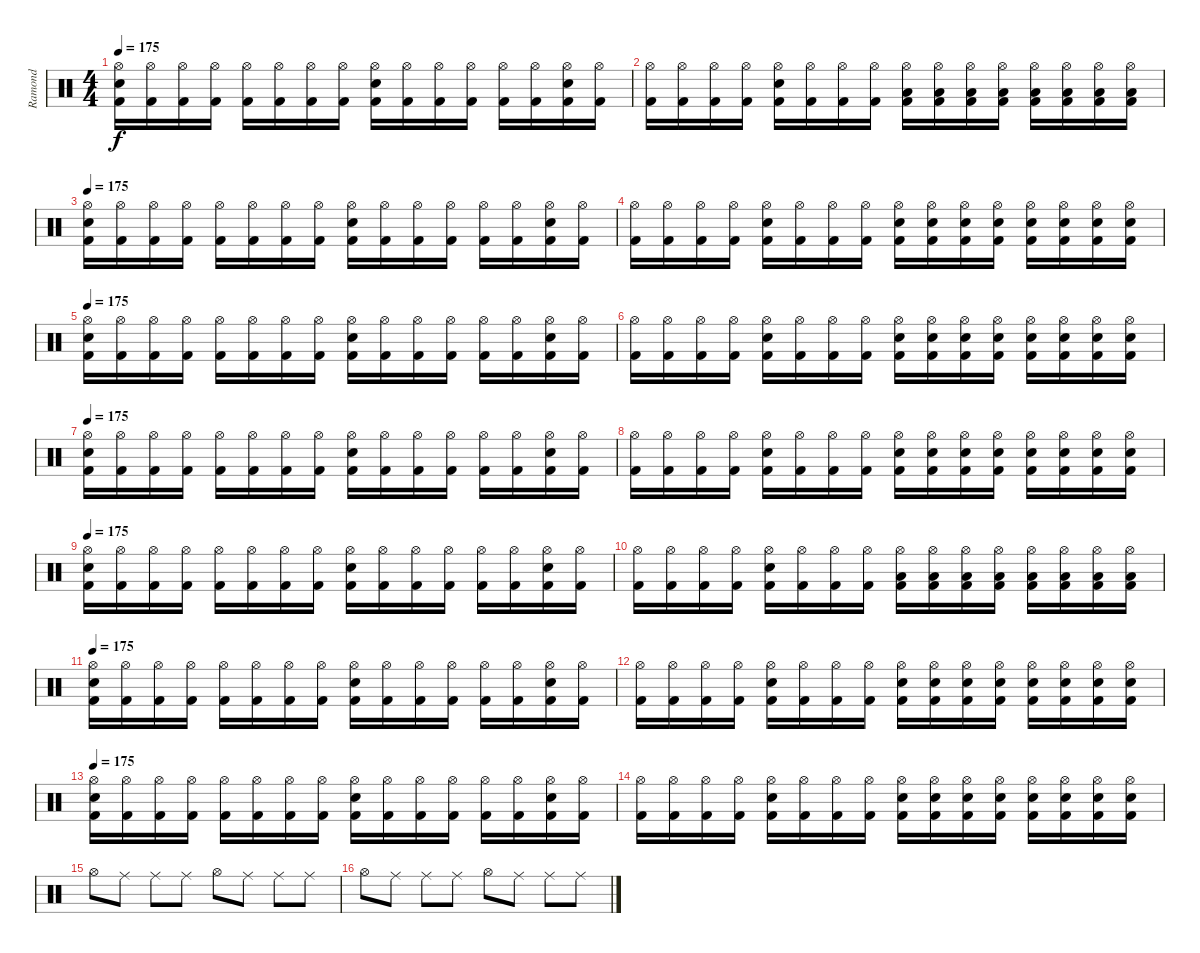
\track ("Ramond" "Ramond") {instrument percussion}
\staff {score}
\articulation defaults
\ts (4 4)
\tempo 175
\clef neutral
\ks c
("Hi-Hat (open)" "Electric Snare (hit)" "Kick (hit) 2").16{dy f} ("Hi-Hat (open)" "Kick (hit) 2").16 ("Hi-Hat (open)" "Kick (hit) 2").16 ("Hi-Hat (open)" "Kick (hit) 2").16 ("Hi-Hat (open)" "Kick (hit) 2").16 ("Hi-Hat (open)" "Kick (hit) 2").16 ("Hi-Hat (open)" "Kick (hit) 2").16 ("Hi-Hat (open)" "Kick (hit) 2").16 ("Hi-Hat (open)" "Electric Snare (hit)" "Kick (hit) 2").16 ("Hi-Hat (open)" "Kick (hit) 2").16 ("Hi-Hat (open)" "Kick (hit) 2").16 ("Hi-Hat (open)" "Kick (hit) 2").16 ("Hi-Hat (open)" "Kick (hit) 2").16 ("Hi-Hat (open)" "Kick (hit) 2").16 ("Hi-Hat (open)" "Electric Snare (hit)" "Kick (hit) 2").16 ("Hi-Hat (open)" "Kick (hit) 2").16 |
("Hi-Hat (open)" "Kick (hit) 2").16 ("Hi-Hat (open)" "Kick (hit) 2").16 ("Hi-Hat (open)" "Kick (hit) 2").16 ("Hi-Hat (open)" "Kick (hit) 2").16 ("Hi-Hat (open)" "Electric Snare (hit)" "Kick (hit) 2").16 ("Hi-Hat (open)" "Kick (hit) 2").16 ("Hi-Hat (open)" "Kick (hit) 2").16 ("Hi-Hat (open)" "Kick (hit) 2").16 ("Hi-Hat (open)" "Low Floor Tom (hit)" "Kick (hit) 2").16 ("Hi-Hat (open)" "Low Floor Tom (hit)" "Kick (hit) 2").16 ("Hi-Hat (open)" "Low Floor Tom (hit)" "Kick (hit) 2").16 ("Hi-Hat (open)" "Low Floor Tom (hit)" "Kick (hit) 2").16 ("Hi-Hat (open)" "Low Floor Tom (hit)" "Kick (hit) 2").16 ("Hi-Hat (open)" "Low Floor Tom (hit)" "Kick (hit) 2").16 ("Hi-Hat (open)" "Low Floor Tom (hit)" "Kick (hit) 2").16 ("Hi-Hat (open)" "Low Floor Tom (hit)" "Kick (hit) 2").16 |
\tempo 175
("Hi-Hat (open)" "Electric Snare (hit)" "Kick (hit) 2").16 ("Hi-Hat (open)" "Kick (hit) 2").16 ("Hi-Hat (open)" "Kick (hit) 2").16 ("Hi-Hat (open)" "Kick (hit) 2").16 ("Hi-Hat (open)" "Kick (hit) 2").16 ("Hi-Hat (open)" "Kick (hit) 2").16 ("Hi-Hat (open)" "Kick (hit) 2").16 ("Hi-Hat (open)" "Kick (hit) 2").16 ("Hi-Hat (open)" "Electric Snare (hit)" "Kick (hit) 2").16 ("Hi-Hat (open)" "Kick (hit) 2").16 ("Hi-Hat (open)" "Kick (hit) 2").16 ("Hi-Hat (open)" "Kick (hit) 2").16 ("Hi-Hat (open)" "Kick (hit) 2").16 ("Hi-Hat (open)" "Kick (hit) 2").16 ("Hi-Hat (open)" "Electric Snare (hit)" "Kick (hit) 2").16 ("Hi-Hat (open)" "Kick (hit) 2").16 |
("Hi-Hat (open)" "Kick (hit) 2").16 ("Hi-Hat (open)" "Kick (hit) 2").16 ("Hi-Hat (open)" "Kick (hit) 2").16 ("Hi-Hat (open)" "Kick (hit) 2").16 ("Hi-Hat (open)" "Electric Snare (hit)" "Kick (hit) 2").16 ("Hi-Hat (open)" "Kick (hit) 2").16 ("Hi-Hat (open)" "Kick (hit) 2").16 ("Hi-Hat (open)" "Kick (hit) 2").16 ("Hi-Hat (open)" "Electric Snare (hit)" "Kick (hit) 2").16 ("Hi-Hat (open)" "Electric Snare (hit)" "Kick (hit) 2").16 ("Hi-Hat (open)" "Electric Snare (hit)" "Kick (hit) 2").16 ("Hi-Hat (open)" "Electric Snare (hit)" "Kick (hit) 2").16 ("Hi-Hat (open)" "Electric Snare (hit)" "Kick (hit) 2").16 ("Hi-Hat (open)" "Electric Snare (hit)" "Kick (hit) 2").16 ("Hi-Hat (open)" "Electric Snare (hit)" "Kick (hit) 2").16 ("Hi-Hat (open)" "Electric Snare (hit)" "Kick (hit) 2").16 |
\tempo 175
("Hi-Hat (open)" "Electric Snare (hit)" "Kick (hit) 2").16 ("Hi-Hat (open)" "Kick (hit) 2").16 ("Hi-Hat (open)" "Kick (hit) 2").16 ("Hi-Hat (open)" "Kick (hit) 2").16 ("Hi-Hat (open)" "Kick (hit) 2").16 ("Hi-Hat (open)" "Kick (hit) 2").16 ("Hi-Hat (open)" "Kick (hit) 2").16 ("Hi-Hat (open)" "Kick (hit) 2").16 ("Hi-Hat (open)" "Electric Snare (hit)" "Kick (hit) 2").16 ("Hi-Hat (open)" "Kick (hit) 2").16 ("Hi-Hat (open)" "Kick (hit) 2").16 ("Hi-Hat (open)" "Kick (hit) 2").16 ("Hi-Hat (open)" "Kick (hit) 2").16 ("Hi-Hat (open)" "Kick (hit) 2").16 ("Hi-Hat (open)" "Electric Snare (hit)" "Kick (hit) 2").16 ("Hi-Hat (open)" "Kick (hit) 2").16 |
("Hi-Hat (open)" "Kick (hit) 2").16 ("Hi-Hat (open)" "Kick (hit) 2").16 ("Hi-Hat (open)" "Kick (hit) 2").16 ("Hi-Hat (open)" "Kick (hit) 2").16 ("Hi-Hat (open)" "Electric Snare (hit)" "Kick (hit) 2").16 ("Hi-Hat (open)" "Kick (hit) 2").16 ("Hi-Hat (open)" "Kick (hit) 2").16 ("Hi-Hat (open)" "Kick (hit) 2").16 ("Hi-Hat (open)" "Electric Snare (hit)" "Kick (hit) 2").16 ("Hi-Hat (open)" "Electric Snare (hit)" "Kick (hit) 2").16 ("Hi-Hat (open)" "Electric Snare (hit)" "Kick (hit) 2").16 ("Hi-Hat (open)" "Electric Snare (hit)" "Kick (hit) 2").16 ("Hi-Hat (open)" "Electric Snare (hit)" "Kick (hit) 2").16 ("Hi-Hat (open)" "Electric Snare (hit)" "Kick (hit) 2").16 ("Hi-Hat (open)" "Electric Snare (hit)" "Kick (hit) 2").16 ("Hi-Hat (open)" "Electric Snare (hit)" "Kick (hit) 2").16 |
\tempo 175
("Hi-Hat (open)" "Electric Snare (hit)" "Kick (hit) 2").16 ("Hi-Hat (open)" "Kick (hit) 2").16 ("Hi-Hat (open)" "Kick (hit) 2").16 ("Hi-Hat (open)" "Kick (hit) 2").16 ("Hi-Hat (open)" "Kick (hit) 2").16 ("Hi-Hat (open)" "Kick (hit) 2").16 ("Hi-Hat (open)" "Kick (hit) 2").16 ("Hi-Hat (open)" "Kick (hit) 2").16 ("Hi-Hat (open)" "Electric Snare (hit)" "Kick (hit) 2").16 ("Hi-Hat (open)" "Kick (hit) 2").16 ("Hi-Hat (open)" "Kick (hit) 2").16 ("Hi-Hat (open)" "Kick (hit) 2").16 ("Hi-Hat (open)" "Kick (hit) 2").16 ("Hi-Hat (open)" "Kick (hit) 2").16 ("Hi-Hat (open)" "Electric Snare (hit)" "Kick (hit) 2").16 ("Hi-Hat (open)" "Kick (hit) 2").16 |
("Hi-Hat (open)" "Kick (hit) 2").16 ("Hi-Hat (open)" "Kick (hit) 2").16 ("Hi-Hat (open)" "Kick (hit) 2").16 ("Hi-Hat (open)" "Kick (hit) 2").16 ("Hi-Hat (open)" "Electric Snare (hit)" "Kick (hit) 2").16 ("Hi-Hat (open)" "Kick (hit) 2").16 ("Hi-Hat (open)" "Kick (hit) 2").16 ("Hi-Hat (open)" "Kick (hit) 2").16 ("Hi-Hat (open)" "Electric Snare (hit)" "Kick (hit) 2").16 ("Hi-Hat (open)" "Electric Snare (hit)" "Kick (hit) 2").16 ("Hi-Hat (open)" "Electric Snare (hit)" "Kick (hit) 2").16 ("Hi-Hat (open)" "Electric Snare (hit)" "Kick (hit) 2").16 ("Hi-Hat (open)" "Electric Snare (hit)" "Kick (hit) 2").16 ("Hi-Hat (open)" "Electric Snare (hit)" "Kick (hit) 2").16 ("Hi-Hat (open)" "Electric Snare (hit)" "Kick (hit) 2").16 ("Hi-Hat (open)" "Electric Snare (hit)" "Kick (hit) 2").16 |
\tempo 175
("Hi-Hat (open)" "Electric Snare (hit)" "Kick (hit) 2").16 ("Hi-Hat (open)" "Kick (hit) 2").16 ("Hi-Hat (open)" "Kick (hit) 2").16 ("Hi-Hat (open)" "Kick (hit) 2").16 ("Hi-Hat (open)" "Kick (hit) 2").16 ("Hi-Hat (open)" "Kick (hit) 2").16 ("Hi-Hat (open)" "Kick (hit) 2").16 ("Hi-Hat (open)" "Kick (hit) 2").16 ("Hi-Hat (open)" "Electric Snare (hit)" "Kick (hit) 2").16 ("Hi-Hat (open)" "Kick (hit) 2").16 ("Hi-Hat (open)" "Kick (hit) 2").16 ("Hi-Hat (open)" "Kick (hit) 2").16 ("Hi-Hat (open)" "Kick (hit) 2").16 ("Hi-Hat (open)" "Kick (hit) 2").16 ("Hi-Hat (open)" "Electric Snare (hit)" "Kick (hit) 2").16 ("Hi-Hat (open)" "Kick (hit) 2").16 |
("Hi-Hat (open)" "Kick (hit) 2").16 ("Hi-Hat (open)" "Kick (hit) 2").16 ("Hi-Hat (open)" "Kick (hit) 2").16 ("Hi-Hat (open)" "Kick (hit) 2").16 ("Hi-Hat (open)" "Electric Snare (hit)" "Kick (hit) 2").16 ("Hi-Hat (open)" "Kick (hit) 2").16 ("Hi-Hat (open)" "Kick (hit) 2").16 ("Hi-Hat (open)" "Kick (hit) 2").16 ("Hi-Hat (open)" "Low Floor Tom (hit)" "Kick (hit) 2").16 ("Hi-Hat (open)" "Low Floor Tom (hit)" "Kick (hit) 2").16 ("Hi-Hat (open)" "Low Floor Tom (hit)" "Kick (hit) 2").16 ("Hi-Hat (open)" "Low Floor Tom (hit)" "Kick (hit) 2").16 ("Hi-Hat (open)" "Low Floor Tom (hit)" "Kick (hit) 2").16 ("Hi-Hat (open)" "Low Floor Tom (hit)" "Kick (hit) 2").16 ("Hi-Hat (open)" "Low Floor Tom (hit)" "Kick (hit) 2").16 ("Hi-Hat (open)" "Low Floor Tom (hit)" "Kick (hit) 2").16 |
\tempo 175
("Hi-Hat (open)" "Electric Snare (hit)" "Kick (hit) 2").16 ("Hi-Hat (open)" "Kick (hit) 2").16 ("Hi-Hat (open)" "Kick (hit) 2").16 ("Hi-Hat (open)" "Kick (hit) 2").16 ("Hi-Hat (open)" "Kick (hit) 2").16 ("Hi-Hat (open)" "Kick (hit) 2").16 ("Hi-Hat (open)" "Kick (hit) 2").16 ("Hi-Hat (open)" "Kick (hit) 2").16 ("Hi-Hat (open)" "Electric Snare (hit)" "Kick (hit) 2").16 ("Hi-Hat (open)" "Kick (hit) 2").16 ("Hi-Hat (open)" "Kick (hit) 2").16 ("Hi-Hat (open)" "Kick (hit) 2").16 ("Hi-Hat (open)" "Kick (hit) 2").16 ("Hi-Hat (open)" "Kick (hit) 2").16 ("Hi-Hat (open)" "Electric Snare (hit)" "Kick (hit) 2").16 ("Hi-Hat (open)" "Kick (hit) 2").16 |
("Hi-Hat (open)" "Kick (hit) 2").16 ("Hi-Hat (open)" "Kick (hit) 2").16 ("Hi-Hat (open)" "Kick (hit) 2").16 ("Hi-Hat (open)" "Kick (hit) 2").16 ("Hi-Hat (open)" "Electric Snare (hit)" "Kick (hit) 2").16 ("Hi-Hat (open)" "Kick (hit) 2").16 ("Hi-Hat (open)" "Kick (hit) 2").16 ("Hi-Hat (open)" "Kick (hit) 2").16 ("Hi-Hat (open)" "Electric Snare (hit)" "Kick (hit) 2").16 ("Hi-Hat (open)" "Electric Snare (hit)" "Kick (hit) 2").16 ("Hi-Hat (open)" "Electric Snare (hit)" "Kick (hit) 2").16 ("Hi-Hat (open)" "Electric Snare (hit)" "Kick (hit) 2").16 ("Hi-Hat (open)" "Electric Snare (hit)" "Kick (hit) 2").16 ("Hi-Hat (open)" "Electric Snare (hit)" "Kick (hit) 2").16 ("Hi-Hat (open)" "Electric Snare (hit)" "Kick (hit) 2").16 ("Hi-Hat (open)" "Electric Snare (hit)" "Kick (hit) 2").16 |
\tempo 175
("Hi-Hat (open)" "Electric Snare (hit)" "Kick (hit) 2").16 ("Hi-Hat (open)" "Kick (hit) 2").16 ("Hi-Hat (open)" "Kick (hit) 2").16 ("Hi-Hat (open)" "Kick (hit) 2").16 ("Hi-Hat (open)" "Kick (hit) 2").16 ("Hi-Hat (open)" "Kick (hit) 2").16 ("Hi-Hat (open)" "Kick (hit) 2").16 ("Hi-Hat (open)" "Kick (hit) 2").16 ("Hi-Hat (open)" "Electric Snare (hit)" "Kick (hit) 2").16 ("Hi-Hat (open)" "Kick (hit) 2").16 ("Hi-Hat (open)" "Kick (hit) 2").16 ("Hi-Hat (open)" "Kick (hit) 2").16 ("Hi-Hat (open)" "Kick (hit) 2").16 ("Hi-Hat (open)" "Kick (hit) 2").16 ("Hi-Hat (open)" "Electric Snare (hit)" "Kick (hit) 2").16 ("Hi-Hat (open)" "Kick (hit) 2").16 |
("Hi-Hat (open)" "Kick (hit) 2").16 ("Hi-Hat (open)" "Kick (hit) 2").16 ("Hi-Hat (open)" "Kick (hit) 2").16 ("Hi-Hat (open)" "Kick (hit) 2").16 ("Hi-Hat (open)" "Electric Snare (hit)" "Kick (hit) 2").16 ("Hi-Hat (open)" "Kick (hit) 2").16 ("Hi-Hat (open)" "Kick (hit) 2").16 ("Hi-Hat (open)" "Kick (hit) 2").16 ("Hi-Hat (open)" "Electric Snare (hit)" "Kick (hit) 2").16 ("Hi-Hat (open)" "Electric Snare (hit)" "Kick (hit) 2").16 ("Hi-Hat (open)" "Electric Snare (hit)" "Kick (hit) 2").16 ("Hi-Hat (open)" "Electric Snare (hit)" "Kick (hit) 2").16 ("Hi-Hat (open)" "Electric Snare (hit)" "Kick (hit) 2").16 ("Hi-Hat (open)" "Electric Snare (hit)" "Kick (hit) 2").16 ("Hi-Hat (open)" "Electric Snare (hit)" "Kick (hit) 2").16 ("Hi-Hat (open)" "Electric Snare (hit)" "Kick (hit) 2").16 |
"Hi-Hat (open)".8 "Ride (middle)".8 "Ride (middle)".8 "Ride (middle)".8 "Hi-Hat (open)".8 "Ride (middle)".8 "Ride (middle)".8 "Ride (middle)".8 |
"Hi-Hat (open)".8 "Ride (middle)".8 "Ride (middle)".8 "Ride (middle)".8 "Hi-Hat (open)".8 "Ride (middle)".8 "Ride (middle)".8 "Ride (middle)".8
